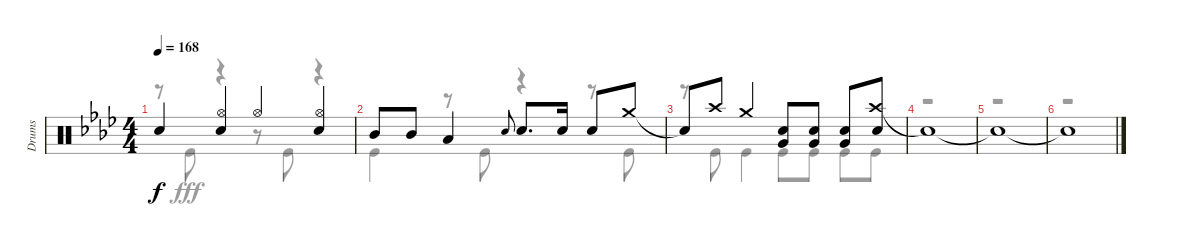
\track ("Drums" "Drums") {instrument percussion}
\staff {score}
\articulation defaults
\voice
\ts (4 4)
\tempo 168
\clef neutral
\ks ab "Snare (hit)"{t}.4{dy f}
("Hi-Hat (open)" "Snare (hit) 2").4 "Hi-Hat (open)".4 ("Hi-Hat (open)" "Snare (hit) 2").4 |
"Mid Tom (hit)".8 "Mid Tom (hit)".8 "Low Tom (hit)".4 "Snare (hit) 2".8{gr onbeat} "Snare (hit) 2".8{d} "Snare (hit) 2".16 "Snare (hit) 2".8 "Crash medium (hit)".8 |
"Snare (hit)"{t}.8 "Crash high (hit)".8 "Crash medium (hit)".4 ("Snare (hit) 2" "Very Low Tom (hit)").8 ("Snare (hit) 2" "Very Low Tom (hit)").8 ("Snare (hit) 2" "Very Low Tom (hit)").8 ("Crash high (hit)" "Snare (hit) 2").8 |
"Snare (hit)"{t}.1 |
"Snare (hit)"{t}.1 |
"Snare (hit)"{t}.1
\voice
\clef neutral
\ottava regular
\simile none
\ks ab
r.8{dy fff} "Kick (hit)".8 r.4 r.8 "Kick (hit)".8 r.4 |
"Kick (hit)".4 r.8 "Kick (hit)".8 r.4 r.8 "Kick (hit)".8 |
r.8 "Kick (hit)".8 "Kick (hit)".4 "Kick (hit)".8 "Kick (hit)".8 "Kick (hit)".8 "Kick (hit)".8 |
r.1 |
r.1 |
r.1
